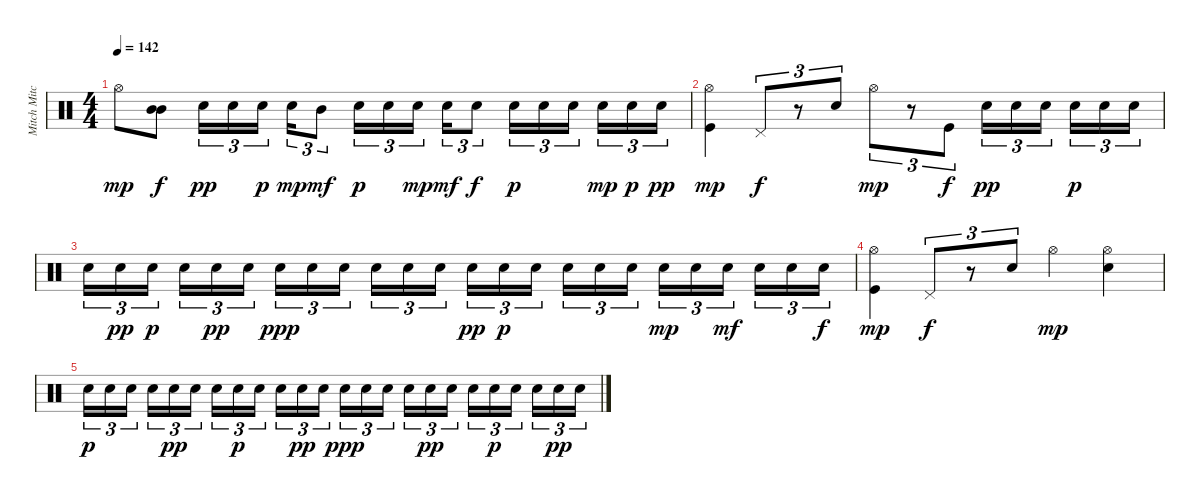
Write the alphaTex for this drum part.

\track ("Mitch Mitchell" "Mitch Mitc") {instrument percussion}
\staff {score}
\articulation defaults
\ts (4 4)
\tempo 142
\clef neutral
\ks c "Hi-Hat (open)".8{dy mp}
("Mid Tom (hit)" "Mid Tom (hit)").8{dy f} "Electric Snare (hit)".16{tu (3 2) dy pp} "Electric Snare (hit)".16{tu (3 2)} "Electric Snare (hit)".16{tu (3 2) dy p} "Electric Snare (hit)".16{tu (3 2) dy mp} "Mid Tom (hit)".8{tu (3 2) dy mf} "Electric Snare (hit)".16{tu (3 2) dy p} "Electric Snare (hit)".16{tu (3 2)} "Electric Snare (hit)".16{tu (3 2) dy mp} "Electric Snare (hit)".16{tu (3 2) dy mf} "Electric Snare (hit)".8{tu (3 2) dy f} "Electric Snare (hit)".16{tu (3 2) dy p} "Electric Snare (hit)".16{tu (3 2)} "Electric Snare (hit)".16{tu (3 2)} "Electric Snare (hit)".16{tu (3 2) dy mp} "Electric Snare (hit)".16{tu (3 2) dy p} "Electric Snare (hit)".16{tu (3 2) dy pp} |
("Hi-Hat (open)" "Kick (hit)").4{dy mp} "Pedal Hi-Hat (hit)".8{tu (3 2) dy f} r.8{tu (3 2)} "Electric Snare (hit)".8{tu (3 2)} "Hi-Hat (open)".8{tu (3 2) dy mp} r.8{tu (3 2)} "Kick (hit)".8{tu (3 2) dy f} "Electric Snare (hit)".16{tu (3 2) dy pp} "Electric Snare (hit)".16{tu (3 2)} "Electric Snare (hit)".16{tu (3 2)} "Electric Snare (hit)".16{tu (3 2) dy p} "Electric Snare (hit)".16{tu (3 2)} "Electric Snare (hit)".16{tu (3 2)} |
"Electric Snare (hit)".16{tu (3 2)} "Electric Snare (hit)".16{tu (3 2) dy pp} "Electric Snare (hit)".16{tu (3 2) dy p} "Electric Snare (hit)".16{tu (3 2)} "Electric Snare (hit)".16{tu (3 2) dy pp} "Electric Snare (hit)".16{tu (3 2)} "Electric Snare (hit)".16{tu (3 2) dy ppp} "Electric Snare (hit)".16{tu (3 2)} "Electric Snare (hit)".16{tu (3 2)} "Electric Snare (hit)".16{tu (3 2)} "Electric Snare (hit)".16{tu (3 2)} "Electric Snare (hit)".16{tu (3 2)} "Electric Snare (hit)".16{tu (3 2) dy pp} "Electric Snare (hit)".16{tu (3 2) dy p} "Electric Snare (hit)".16{tu (3 2)} "Electric Snare (hit)".16{tu (3 2)} "Electric Snare (hit)".16{tu (3 2)} "Electric Snare (hit)".16{tu (3 2)} "Electric Snare (hit)".16{tu (3 2) dy mp} "Electric Snare (hit)".16{tu (3 2)} "Electric Snare (hit)".16{tu (3 2) dy mf} "Electric Snare (hit)".16{tu (3 2)} "Electric Snare (hit)".16{tu (3 2)} "Electric Snare (hit)".16{tu (3 2) dy f} |
("Hi-Hat (open)" "Kick (hit)").4{dy mp volume 0} "Pedal Hi-Hat (hit)".8{tu (3 2) dy f} r.8{tu (3 2)} "Electric Snare (hit)".8{tu (3 2)} "Hi-Hat (open)".4{dy mp} ("Hi-Hat (open)" "Electric Snare (hit)").4 |
"Electric Snare (hit)".16{tu (3 2) dy p} "Electric Snare (hit)".16{tu (3 2)} "Electric Snare (hit)".16{tu (3 2)} "Electric Snare (hit)".16{tu (3 2)} "Electric Snare (hit)".16{tu (3 2) dy pp} "Electric Snare (hit)".16{tu (3 2)} "Electric Snare (hit)".16{tu (3 2)} "Electric Snare (hit)".16{tu (3 2) dy p} "Electric Snare (hit)".16{tu (3 2)} "Electric Snare (hit)".16{tu (3 2)} "Electric Snare (hit)".16{tu (3 2) dy pp} "Electric Snare (hit)".16{tu (3 2)} "Electric Snare (hit)".16{tu (3 2) dy ppp} "Electric Snare (hit)".16{tu (3 2)} "Electric Snare (hit)".16{tu (3 2)} "Electric Snare (hit)".16{tu (3 2)} "Electric Snare (hit)".16{tu (3 2) dy pp} "Electric Snare (hit)".16{tu (3 2)} "Electric Snare (hit)".16{tu (3 2)} "Electric Snare (hit)".16{tu (3 2) dy p} "Electric Snare (hit)".16{tu (3 2)} "Electric Snare (hit)".16{tu (3 2)} "Electric Snare (hit)".16{tu (3 2) dy pp} "Electric Snare (hit)".16{tu (3 2)}
